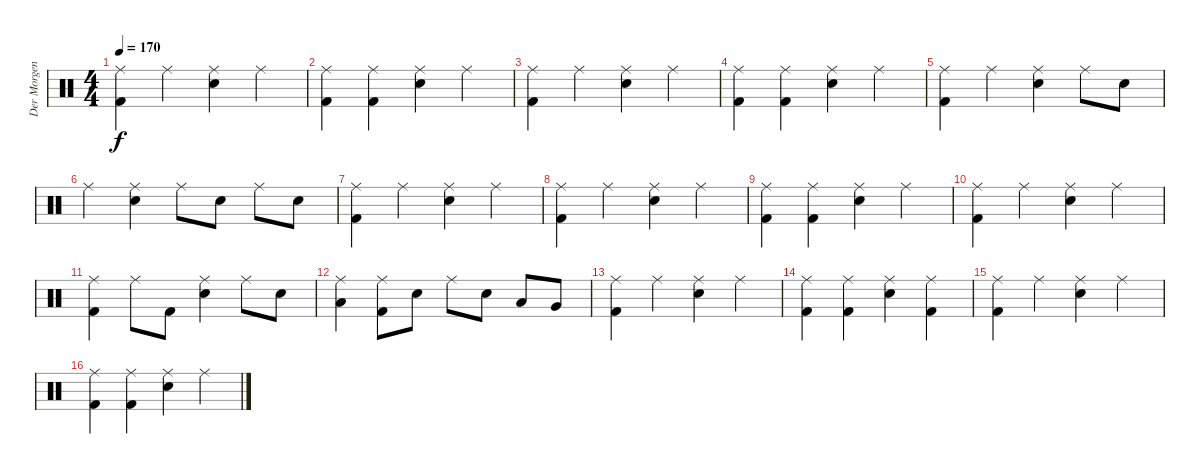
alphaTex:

\track ("Der Morgenstern" "Der Morgen") {instrument percussion}
\staff {score}
\articulation defaults
\ts (4 4)
\tempo 170
\clef neutral
\ks c
("Ride (middle)" "Kick (hit) 2").4{dy f} "Ride (middle)".4 ("Ride (middle)" "Electric Snare (hit)").4 "Ride (middle)".4 |
("Ride (middle)" "Kick (hit) 2").4 ("Ride (middle)" "Kick (hit) 2").4 ("Ride (middle)" "Electric Snare (hit)").4 "Ride (middle)".4 |
("Ride (middle)" "Kick (hit) 2").4 "Ride (middle)".4 ("Ride (middle)" "Electric Snare (hit)").4 "Ride (middle)".4 |
("Ride (middle)" "Kick (hit) 2").4 ("Ride (middle)" "Kick (hit) 2").4 ("Ride (middle)" "Electric Snare (hit)").4 "Ride (middle)".4 |
("Ride (middle)" "Kick (hit) 2").4 "Ride (middle)".4 ("Ride (middle)" "Electric Snare (hit)").4 "Ride (middle)".8 "Electric Snare (hit)".8 |
"Ride (middle)".4 ("Ride (middle)" "Electric Snare (hit)").4 "Ride (middle)".8 "Electric Snare (hit)".8 "Ride (middle)".8 "Electric Snare (hit)".8 |
("Ride (middle)" "Kick (hit) 2").4 "Ride (middle)".4 ("Ride (middle)" "Electric Snare (hit)").4 "Ride (middle)".4 |
("Ride (middle)" "Kick (hit) 2").4 "Ride (middle)".4 ("Ride (middle)" "Electric Snare (hit)").4 "Ride (middle)".4 |
("Ride (middle)" "Kick (hit) 2").4 ("Ride (middle)" "Kick (hit) 2").4 ("Ride (middle)" "Electric Snare (hit)").4 "Ride (middle)".4 |
("Ride (middle)" "Kick (hit) 2").4 "Ride (middle)".4 ("Ride (middle)" "Electric Snare (hit)").4 "Ride (middle)".4 |
("Ride (middle)" "Kick (hit) 2").4 "Ride (middle)".8 "Kick (hit) 2".8 ("Ride (middle)" "Electric Snare (hit)").4 "Ride (middle)".8 "Electric Snare (hit)".8 |
("Ride (middle)" "Low Tom (hit)").4 ("Ride (middle)" "Kick (hit) 2").8 "Electric Snare (hit)".8 "Ride (middle)".8 "Electric Snare (hit)".8 "Low Tom (hit)".8 "Very Low Tom (hit)".8 |
("Ride (middle)" "Kick (hit) 2").4 "Ride (middle)".4 ("Ride (middle)" "Electric Snare (hit)").4 "Ride (middle)".4 |
("Ride (middle)" "Kick (hit) 2").4 ("Ride (middle)" "Kick (hit) 2").4 ("Ride (middle)" "Electric Snare (hit)").4 ("Ride (middle)" "Kick (hit) 2").4 |
("Ride (middle)" "Kick (hit) 2").4 "Ride (middle)".4 ("Ride (middle)" "Electric Snare (hit)").4 "Ride (middle)".4 |
("Ride (middle)" "Kick (hit) 2").4 ("Ride (middle)" "Kick (hit) 2").4 ("Ride (middle)" "Electric Snare (hit)").4 "Ride (middle)".4
